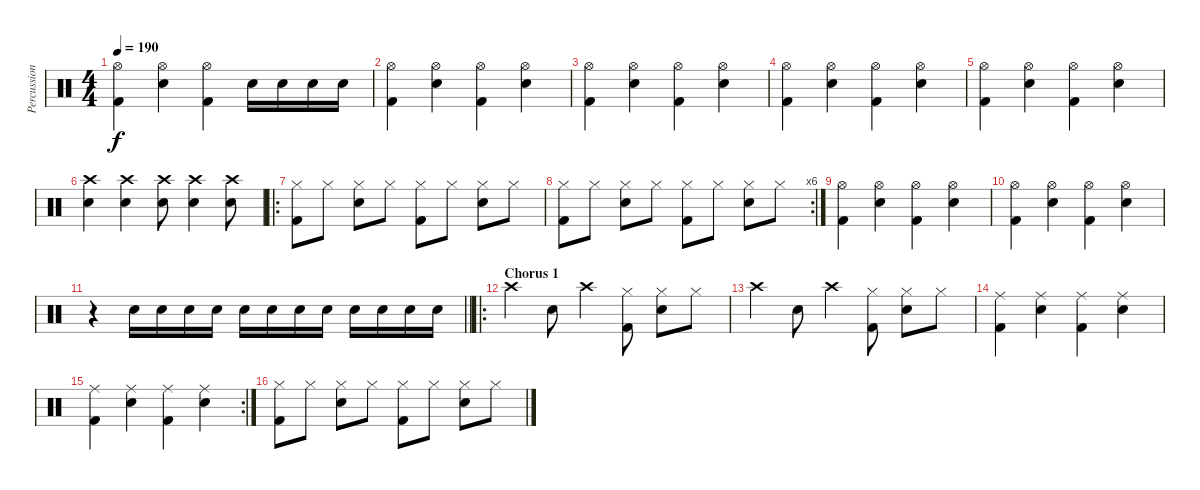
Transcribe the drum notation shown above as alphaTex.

\track ("Percussion" "Percussion") {instrument percussion}
\staff {score}
\articulation defaults
\ts (4 4)
\tempo 190
\clef neutral
\ks c
("Hi-Hat (open)" "Kick (hit) 2").4{dy f} ("Hi-Hat (open)" "Snare (hit) 2").4 ("Hi-Hat (open)" "Kick (hit) 2").4 "Snare (hit) 2".16 "Snare (hit) 2".16 "Snare (hit) 2".16 "Snare (hit) 2".16 |
("Hi-Hat (open)" "Kick (hit) 2").4 ("Hi-Hat (open)" "Snare (hit) 2").4 ("Hi-Hat (open)" "Kick (hit) 2").4 ("Hi-Hat (open)" "Snare (hit) 2").4 |
("Hi-Hat (open)" "Kick (hit) 2").4 ("Hi-Hat (open)" "Snare (hit) 2").4 ("Hi-Hat (open)" "Kick (hit) 2").4 ("Hi-Hat (open)" "Snare (hit) 2").4 |
("Hi-Hat (open)" "Kick (hit) 2").4 ("Hi-Hat (open)" "Snare (hit) 2").4 ("Hi-Hat (open)" "Kick (hit) 2").4 ("Hi-Hat (open)" "Snare (hit) 2").4 |
("Hi-Hat (open)" "Kick (hit) 2").4 ("Hi-Hat (open)" "Snare (hit) 2").4 ("Hi-Hat (open)" "Kick (hit) 2").4 ("Hi-Hat (open)" "Snare (hit) 2").4 |
("Crash high (hit)" "Snare (hit) 2").4 ("Crash high (hit)" "Snare (hit) 2").4 ("Crash high (hit)" "Snare (hit) 2").8 ("Crash high (hit)" "Snare (hit) 2").4 ("Crash high (hit)" "Snare (hit) 2").8 |
\ro
("Hi-Hat (closed)" "Kick (hit) 2").8 "Hi-Hat (closed)".8 ("Hi-Hat (closed)" "Snare (hit) 2").8 "Hi-Hat (closed)".8 ("Hi-Hat (closed)" "Kick (hit) 2").8 "Hi-Hat (closed)".8 ("Hi-Hat (closed)" "Snare (hit) 2").8 "Hi-Hat (closed)".8 |
\rc 6
("Hi-Hat (closed)" "Kick (hit) 2").8 "Hi-Hat (closed)".8 ("Hi-Hat (closed)" "Snare (hit) 2").8 "Hi-Hat (closed)".8 ("Hi-Hat (closed)" "Kick (hit) 2").8 "Hi-Hat (closed)".8 ("Hi-Hat (closed)" "Snare (hit) 2").8 "Hi-Hat (closed)".8 |
("Hi-Hat (open)" "Kick (hit) 2").4 ("Hi-Hat (open)" "Snare (hit) 2").4 ("Hi-Hat (open)" "Kick (hit) 2").4 ("Hi-Hat (open)" "Snare (hit) 2").4 |
("Hi-Hat (open)" "Kick (hit) 2").4 ("Hi-Hat (open)" "Snare (hit) 2").4 ("Hi-Hat (open)" "Kick (hit) 2").4 ("Hi-Hat (open)" "Snare (hit) 2").4 |
\barLineRight lightlight
r.4 "Snare (hit) 2".16 "Snare (hit) 2".16 "Snare (hit) 2".16 "Snare (hit) 2".16 "Snare (hit) 2".16 "Snare (hit) 2".16 "Snare (hit) 2".16 "Snare (hit) 2".16 "Snare (hit) 2".16 "Snare (hit) 2".16 "Snare (hit) 2".16 "Snare (hit) 2".16 |
\ro
\section ("" "Chorus 1")
"Crash high (hit)".4 "Snare (hit) 2".8 "Crash high (hit)".4 ("Hi-Hat (closed)" "Kick (hit) 2").8 ("Hi-Hat (closed)" "Snare (hit) 2").8 "Hi-Hat (closed)".8 |
"Crash high (hit)".4 "Snare (hit) 2".8 "Crash high (hit)".4 ("Hi-Hat (closed)" "Kick (hit) 2").8 ("Hi-Hat (closed)" "Snare (hit) 2").8 "Hi-Hat (closed)".8 |
("Ride (middle)" "Kick (hit) 2").4 ("Ride (middle)" "Snare (hit) 2").4 ("Ride (middle)" "Kick (hit) 2").4 ("Ride (middle)" "Snare (hit) 2").4 |
\rc 2
("Ride (middle)" "Kick (hit) 2").4 ("Ride (middle)" "Snare (hit) 2").4 ("Ride (middle)" "Kick (hit) 2").4 ("Ride (middle)" "Snare (hit) 2").4 |
("Hi-Hat (closed)" "Kick (hit) 2").8 "Hi-Hat (closed)".8 ("Hi-Hat (closed)" "Snare (hit) 2").8 "Hi-Hat (closed)".8 ("Hi-Hat (closed)" "Kick (hit) 2").8 "Hi-Hat (closed)".8 ("Hi-Hat (closed)" "Snare (hit) 2").8 "Hi-Hat (closed)".8
